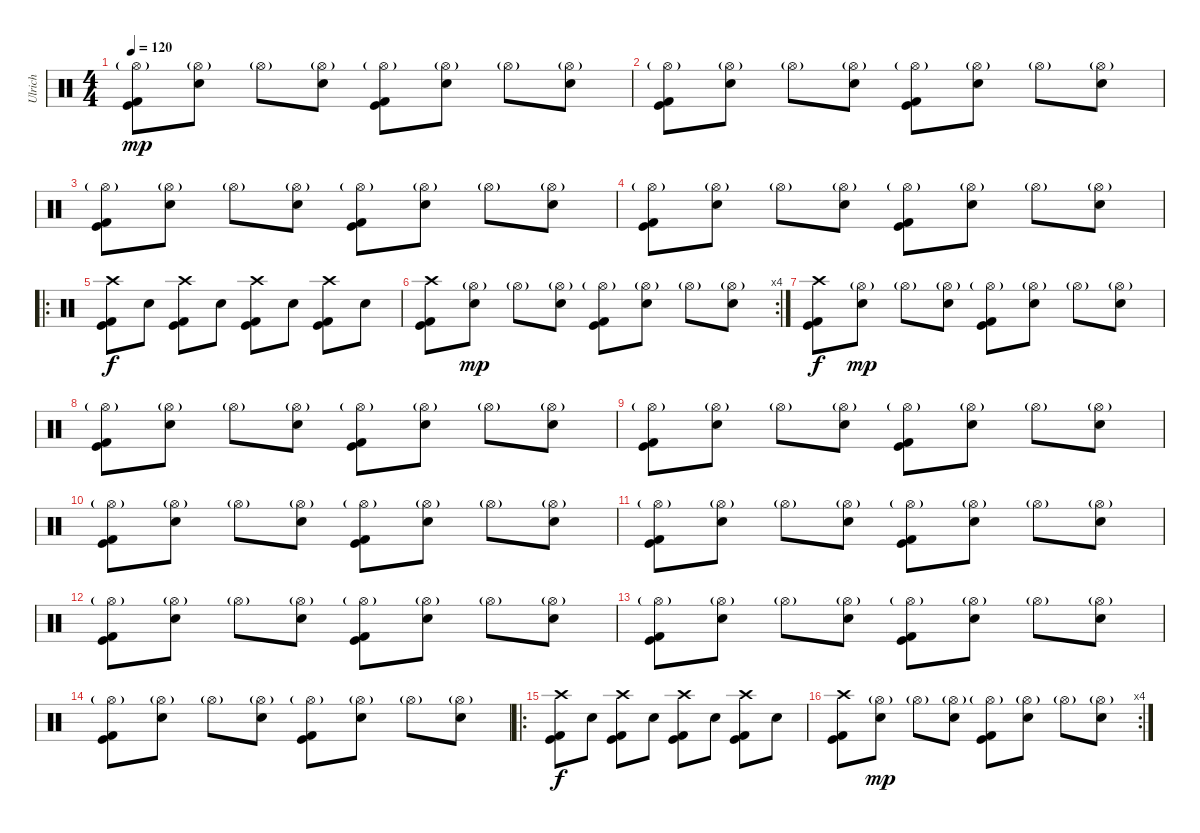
\track ("Ulrich" "Ulrich") {instrument percussion}
\staff {score}
\articulation defaults
\ts (4 4)
\tempo 120
\clef neutral
\ks c
("Hi-Hat (open)"{g} "Kick (hit)" "Kick (hit) 2").8{dy mp} ("Hi-Hat (open)"{g} "Electric Snare (hit)").8 "Hi-Hat (open)"{g}.8 ("Hi-Hat (open)"{g} "Electric Snare (hit)").8 ("Hi-Hat (open)"{g} "Kick (hit)" "Kick (hit) 2").8 ("Hi-Hat (open)"{g} "Electric Snare (hit)").8 "Hi-Hat (open)"{g}.8 ("Hi-Hat (open)"{g} "Electric Snare (hit)").8 |
("Hi-Hat (open)"{g} "Kick (hit)" "Kick (hit) 2").8 ("Hi-Hat (open)"{g} "Electric Snare (hit)").8 "Hi-Hat (open)"{g}.8 ("Hi-Hat (open)"{g} "Electric Snare (hit)").8 ("Hi-Hat (open)"{g} "Kick (hit)" "Kick (hit) 2").8 ("Hi-Hat (open)"{g} "Electric Snare (hit)").8 "Hi-Hat (open)"{g}.8 ("Hi-Hat (open)"{g} "Electric Snare (hit)").8 |
("Hi-Hat (open)"{g} "Kick (hit)" "Kick (hit) 2").8 ("Hi-Hat (open)"{g} "Electric Snare (hit)").8 "Hi-Hat (open)"{g}.8 ("Hi-Hat (open)"{g} "Electric Snare (hit)").8 ("Hi-Hat (open)"{g} "Kick (hit)" "Kick (hit) 2").8 ("Hi-Hat (open)"{g} "Electric Snare (hit)").8 "Hi-Hat (open)"{g}.8 ("Hi-Hat (open)"{g} "Electric Snare (hit)").8 |
("Hi-Hat (open)"{g} "Kick (hit)" "Kick (hit) 2").8 ("Hi-Hat (open)"{g} "Electric Snare (hit)").8 "Hi-Hat (open)"{g}.8 ("Hi-Hat (open)"{g} "Electric Snare (hit)").8 ("Hi-Hat (open)"{g} "Kick (hit)" "Kick (hit) 2").8 ("Hi-Hat (open)"{g} "Electric Snare (hit)").8 "Hi-Hat (open)"{g}.8 ("Hi-Hat (open)"{g} "Electric Snare (hit)").8 |
\ro
("Crash high (hit)" "Kick (hit)" "Kick (hit) 2").8{dy f} "Electric Snare (hit)".8 ("Crash high (hit)" "Kick (hit)" "Kick (hit) 2").8 "Electric Snare (hit)".8 ("Crash high (hit)" "Kick (hit)" "Kick (hit) 2").8 "Electric Snare (hit)".8 ("Crash high (hit)" "Kick (hit)" "Kick (hit) 2").8 "Electric Snare (hit)".8 |
\rc 4
("Crash high (hit)" "Kick (hit)" "Kick (hit) 2").8 ("Hi-Hat (open)"{g} "Electric Snare (hit)").8{dy mp} "Hi-Hat (open)"{g}.8 ("Hi-Hat (open)"{g} "Electric Snare (hit)").8 ("Hi-Hat (open)"{g} "Kick (hit)" "Kick (hit) 2").8 ("Hi-Hat (open)"{g} "Electric Snare (hit)").8 "Hi-Hat (open)"{g}.8 ("Hi-Hat (open)"{g} "Electric Snare (hit)").8 |
("Crash high (hit)" "Kick (hit)" "Kick (hit) 2").8{dy f} ("Hi-Hat (open)"{g} "Electric Snare (hit)").8{dy mp} "Hi-Hat (open)"{g}.8 ("Hi-Hat (open)"{g} "Electric Snare (hit)").8 ("Hi-Hat (open)"{g} "Kick (hit)" "Kick (hit) 2").8 ("Hi-Hat (open)"{g} "Electric Snare (hit)").8 "Hi-Hat (open)"{g}.8 ("Hi-Hat (open)"{g} "Electric Snare (hit)").8 |
("Hi-Hat (open)"{g} "Kick (hit)" "Kick (hit) 2").8 ("Hi-Hat (open)"{g} "Electric Snare (hit)").8 "Hi-Hat (open)"{g}.8 ("Hi-Hat (open)"{g} "Electric Snare (hit)").8 ("Hi-Hat (open)"{g} "Kick (hit)" "Kick (hit) 2").8 ("Hi-Hat (open)"{g} "Electric Snare (hit)").8 "Hi-Hat (open)"{g}.8 ("Hi-Hat (open)"{g} "Electric Snare (hit)").8 |
("Hi-Hat (open)"{g} "Kick (hit)" "Kick (hit) 2").8 ("Hi-Hat (open)"{g} "Electric Snare (hit)").8 "Hi-Hat (open)"{g}.8 ("Hi-Hat (open)"{g} "Electric Snare (hit)").8 ("Hi-Hat (open)"{g} "Kick (hit)" "Kick (hit) 2").8 ("Hi-Hat (open)"{g} "Electric Snare (hit)").8 "Hi-Hat (open)"{g}.8 ("Hi-Hat (open)"{g} "Electric Snare (hit)").8 |
("Hi-Hat (open)"{g} "Kick (hit)" "Kick (hit) 2").8 ("Hi-Hat (open)"{g} "Electric Snare (hit)").8 "Hi-Hat (open)"{g}.8 ("Hi-Hat (open)"{g} "Electric Snare (hit)").8 ("Hi-Hat (open)"{g} "Kick (hit)" "Kick (hit) 2").8 ("Hi-Hat (open)"{g} "Electric Snare (hit)").8 "Hi-Hat (open)"{g}.8 ("Hi-Hat (open)"{g} "Electric Snare (hit)").8 |
("Hi-Hat (open)"{g} "Kick (hit)" "Kick (hit) 2").8 ("Hi-Hat (open)"{g} "Electric Snare (hit)").8 "Hi-Hat (open)"{g}.8 ("Hi-Hat (open)"{g} "Electric Snare (hit)").8 ("Hi-Hat (open)"{g} "Kick (hit)" "Kick (hit) 2").8 ("Hi-Hat (open)"{g} "Electric Snare (hit)").8 "Hi-Hat (open)"{g}.8 ("Hi-Hat (open)"{g} "Electric Snare (hit)").8 |
("Hi-Hat (open)"{g} "Kick (hit)" "Kick (hit) 2").8 ("Hi-Hat (open)"{g} "Electric Snare (hit)").8 "Hi-Hat (open)"{g}.8 ("Hi-Hat (open)"{g} "Electric Snare (hit)").8 ("Hi-Hat (open)"{g} "Kick (hit)" "Kick (hit) 2").8 ("Hi-Hat (open)"{g} "Electric Snare (hit)").8 "Hi-Hat (open)"{g}.8 ("Hi-Hat (open)"{g} "Electric Snare (hit)").8 |
("Hi-Hat (open)"{g} "Kick (hit)" "Kick (hit) 2").8 ("Hi-Hat (open)"{g} "Electric Snare (hit)").8 "Hi-Hat (open)"{g}.8 ("Hi-Hat (open)"{g} "Electric Snare (hit)").8 ("Hi-Hat (open)"{g} "Kick (hit)" "Kick (hit) 2").8 ("Hi-Hat (open)"{g} "Electric Snare (hit)").8 "Hi-Hat (open)"{g}.8 ("Hi-Hat (open)"{g} "Electric Snare (hit)").8 |
("Hi-Hat (open)"{g} "Kick (hit)" "Kick (hit) 2").8 ("Hi-Hat (open)"{g} "Electric Snare (hit)").8 "Hi-Hat (open)"{g}.8 ("Hi-Hat (open)"{g} "Electric Snare (hit)").8 ("Hi-Hat (open)"{g} "Kick (hit)" "Kick (hit) 2").8 ("Hi-Hat (open)"{g} "Electric Snare (hit)").8 "Hi-Hat (open)"{g}.8 ("Hi-Hat (open)"{g} "Electric Snare (hit)").8 |
\ro
("Crash high (hit)" "Kick (hit)" "Kick (hit) 2").8{dy f} "Electric Snare (hit)".8 ("Crash high (hit)" "Kick (hit)" "Kick (hit) 2").8 "Electric Snare (hit)".8 ("Crash high (hit)" "Kick (hit)" "Kick (hit) 2").8 "Electric Snare (hit)".8 ("Crash high (hit)" "Kick (hit)" "Kick (hit) 2").8 "Electric Snare (hit)".8 |
\rc 4
("Crash high (hit)" "Kick (hit)" "Kick (hit) 2").8 ("Hi-Hat (open)"{g} "Electric Snare (hit)").8{dy mp} "Hi-Hat (open)"{g}.8 ("Hi-Hat (open)"{g} "Electric Snare (hit)").8 ("Hi-Hat (open)"{g} "Kick (hit)" "Kick (hit) 2").8 ("Hi-Hat (open)"{g} "Electric Snare (hit)").8 "Hi-Hat (open)"{g}.8 ("Hi-Hat (open)"{g} "Electric Snare (hit)").8
